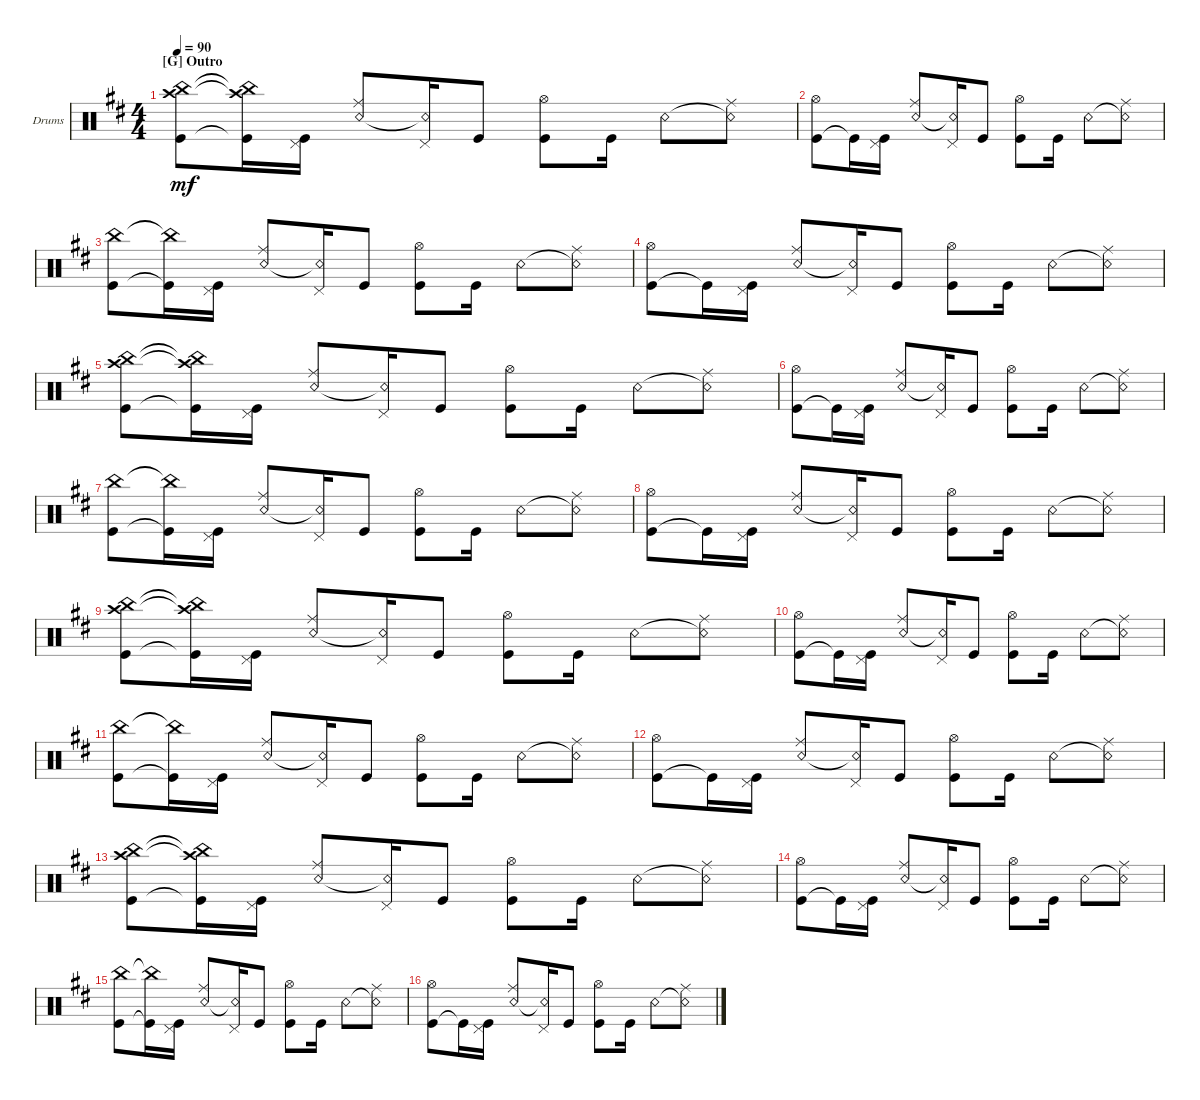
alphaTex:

\defaultSystemsLayout 4
\bracketExtendMode groupsimilarinstruments
\firstSystemTrackNameOrientation horizontal
\otherSystemsTrackNameOrientation horizontal
\track ("Bateria" "Drums") {multiBarRest instrument percussion}
\staff {score}
\articulation defaults
\ts (4 4)
\section ("G" "Outro")
\tempo 90
\clef neutral
\ks d
("Kick (hit)" "China (hit)" "Crash high (hit)").8{dy mf} ("Kick (hit)"{t} "China (hit)"{t} "Crash high (hit)"{t}).16 ("Kick (hit)" "Pedal Hi-Hat (hit)").16 ("Snare (rim shot)" "Ride (middle)").8 ("Snare (rim shot)"{t} "Pedal Hi-Hat (hit)").16 "Kick (hit)".8 ("Kick (hit)" "Hi-Hat (open)").8 "Kick (hit)".16 "Snare (rim shot)".8 ("Snare (rim shot)"{t} "Ride (middle)").8 |
("Kick (hit)" "Hi-Hat (open)").8 "Kick (hit)"{t}.16 ("Kick (hit)" "Pedal Hi-Hat (hit)").16 ("Snare (rim shot)" "Ride (middle)").8 ("Snare (rim shot)"{t} "Pedal Hi-Hat (hit)").16 "Kick (hit)".8 ("Kick (hit)" "Hi-Hat (open)").8 "Kick (hit)".16 "Snare (rim shot)".8 ("Snare (rim shot)"{t} "Ride (middle)").8 |
("Kick (hit)" "China (hit)").8 ("Kick (hit)"{t} "China (hit)"{t}).16 ("Kick (hit)" "Pedal Hi-Hat (hit)").16 ("Snare (rim shot)" "Ride (middle)").8 ("Snare (rim shot)"{t} "Pedal Hi-Hat (hit)").16 "Kick (hit)".8 ("Kick (hit)" "Hi-Hat (open)").8 "Kick (hit)".16 "Snare (rim shot)".8 ("Snare (rim shot)"{t} "Ride (middle)").8 |
("Kick (hit)" "Hi-Hat (open)").8 "Kick (hit)"{t}.16 ("Kick (hit)" "Pedal Hi-Hat (hit)").16 ("Snare (rim shot)" "Ride (middle)").8 ("Snare (rim shot)"{t} "Pedal Hi-Hat (hit)").16 "Kick (hit)".8 ("Kick (hit)" "Hi-Hat (open)").8 "Kick (hit)".16 "Snare (rim shot)".8 ("Snare (rim shot)"{t} "Ride (middle)").8 |
("Kick (hit)" "China (hit)" "Crash high (hit)").8 ("Kick (hit)"{t} "China (hit)"{t} "Crash high (hit)"{t}).16 ("Kick (hit)" "Pedal Hi-Hat (hit)").16 ("Snare (rim shot)" "Ride (middle)").8 ("Snare (rim shot)"{t} "Pedal Hi-Hat (hit)").16 "Kick (hit)".8 ("Kick (hit)" "Hi-Hat (open)").8 "Kick (hit)".16 "Snare (rim shot)".8 ("Snare (rim shot)"{t} "Ride (middle)").8 |
("Kick (hit)" "Hi-Hat (open)").8 "Kick (hit)"{t}.16 ("Kick (hit)" "Pedal Hi-Hat (hit)").16 ("Snare (rim shot)" "Ride (middle)").8 ("Snare (rim shot)"{t} "Pedal Hi-Hat (hit)").16 "Kick (hit)".8 ("Kick (hit)" "Hi-Hat (open)").8 "Kick (hit)".16 "Snare (rim shot)".8 ("Snare (rim shot)"{t} "Ride (middle)").8 |
("Kick (hit)" "China (hit)").8 ("Kick (hit)"{t} "China (hit)"{t}).16 ("Kick (hit)" "Pedal Hi-Hat (hit)").16 ("Snare (rim shot)" "Ride (middle)").8 ("Snare (rim shot)"{t} "Pedal Hi-Hat (hit)").16 "Kick (hit)".8 ("Kick (hit)" "Hi-Hat (open)").8 "Kick (hit)".16 "Snare (rim shot)".8 ("Snare (rim shot)"{t} "Ride (middle)").8 |
("Kick (hit)" "Hi-Hat (open)").8 "Kick (hit)"{t}.16 ("Kick (hit)" "Pedal Hi-Hat (hit)").16 ("Snare (rim shot)" "Ride (middle)").8 ("Snare (rim shot)"{t} "Pedal Hi-Hat (hit)").16 "Kick (hit)".8 ("Kick (hit)" "Hi-Hat (open)").8 "Kick (hit)".16 "Snare (rim shot)".8 ("Snare (rim shot)"{t} "Ride (middle)").8 |
("Kick (hit)" "China (hit)" "Crash high (hit)").8 ("Kick (hit)"{t} "China (hit)"{t} "Crash high (hit)"{t}).16 ("Kick (hit)" "Pedal Hi-Hat (hit)").16 ("Snare (rim shot)" "Ride (middle)").8 ("Snare (rim shot)"{t} "Pedal Hi-Hat (hit)").16 "Kick (hit)".8 ("Kick (hit)" "Hi-Hat (open)").8 "Kick (hit)".16 "Snare (rim shot)".8 ("Snare (rim shot)"{t} "Ride (middle)").8 |
("Kick (hit)" "Hi-Hat (open)").8 "Kick (hit)"{t}.16 ("Kick (hit)" "Pedal Hi-Hat (hit)").16 ("Snare (rim shot)" "Ride (middle)").8 ("Snare (rim shot)"{t} "Pedal Hi-Hat (hit)").16 "Kick (hit)".8 ("Kick (hit)" "Hi-Hat (open)").8 "Kick (hit)".16 "Snare (rim shot)".8 ("Snare (rim shot)"{t} "Ride (middle)").8 |
("Kick (hit)" "China (hit)").8 ("Kick (hit)"{t} "China (hit)"{t}).16 ("Kick (hit)" "Pedal Hi-Hat (hit)").16 ("Snare (rim shot)" "Ride (middle)").8 ("Snare (rim shot)"{t} "Pedal Hi-Hat (hit)").16 "Kick (hit)".8 ("Kick (hit)" "Hi-Hat (open)").8 "Kick (hit)".16 "Snare (rim shot)".8 ("Snare (rim shot)"{t} "Ride (middle)").8 |
("Kick (hit)" "Hi-Hat (open)").8 "Kick (hit)"{t}.16 ("Kick (hit)" "Pedal Hi-Hat (hit)").16 ("Snare (rim shot)" "Ride (middle)").8 ("Snare (rim shot)"{t} "Pedal Hi-Hat (hit)").16 "Kick (hit)".8 ("Kick (hit)" "Hi-Hat (open)").8 "Kick (hit)".16 "Snare (rim shot)".8 ("Snare (rim shot)"{t} "Ride (middle)").8 |
("Kick (hit)" "China (hit)" "Crash high (hit)").8 ("Kick (hit)"{t} "China (hit)"{t} "Crash high (hit)"{t}).16 ("Kick (hit)" "Pedal Hi-Hat (hit)").16 ("Snare (rim shot)" "Ride (middle)").8 ("Snare (rim shot)"{t} "Pedal Hi-Hat (hit)").16 "Kick (hit)".8 ("Kick (hit)" "Hi-Hat (open)").8 "Kick (hit)".16 "Snare (rim shot)".8 ("Snare (rim shot)"{t} "Ride (middle)").8 |
("Kick (hit)" "Hi-Hat (open)").8 "Kick (hit)"{t}.16 ("Kick (hit)" "Pedal Hi-Hat (hit)").16 ("Snare (rim shot)" "Ride (middle)").8 ("Snare (rim shot)"{t} "Pedal Hi-Hat (hit)").16 "Kick (hit)".8 ("Kick (hit)" "Hi-Hat (open)").8 "Kick (hit)".16 "Snare (rim shot)".8 ("Snare (rim shot)"{t} "Ride (middle)").8 |
("Kick (hit)" "China (hit)").8 ("Kick (hit)"{t} "China (hit)"{t}).16 ("Kick (hit)" "Pedal Hi-Hat (hit)").16 ("Snare (rim shot)" "Ride (middle)").8 ("Snare (rim shot)"{t} "Pedal Hi-Hat (hit)").16 "Kick (hit)".8 ("Kick (hit)" "Hi-Hat (open)").8 "Kick (hit)".16 "Snare (rim shot)".8 ("Snare (rim shot)"{t} "Ride (middle)").8 |
("Kick (hit)" "Hi-Hat (open)").8 "Kick (hit)"{t}.16 ("Kick (hit)" "Pedal Hi-Hat (hit)").16 ("Snare (rim shot)" "Ride (middle)").8 ("Snare (rim shot)"{t} "Pedal Hi-Hat (hit)").16 "Kick (hit)".8 ("Kick (hit)" "Hi-Hat (open)").8 "Kick (hit)".16 "Snare (rim shot)".8 ("Snare (rim shot)"{t} "Ride (middle)").8
